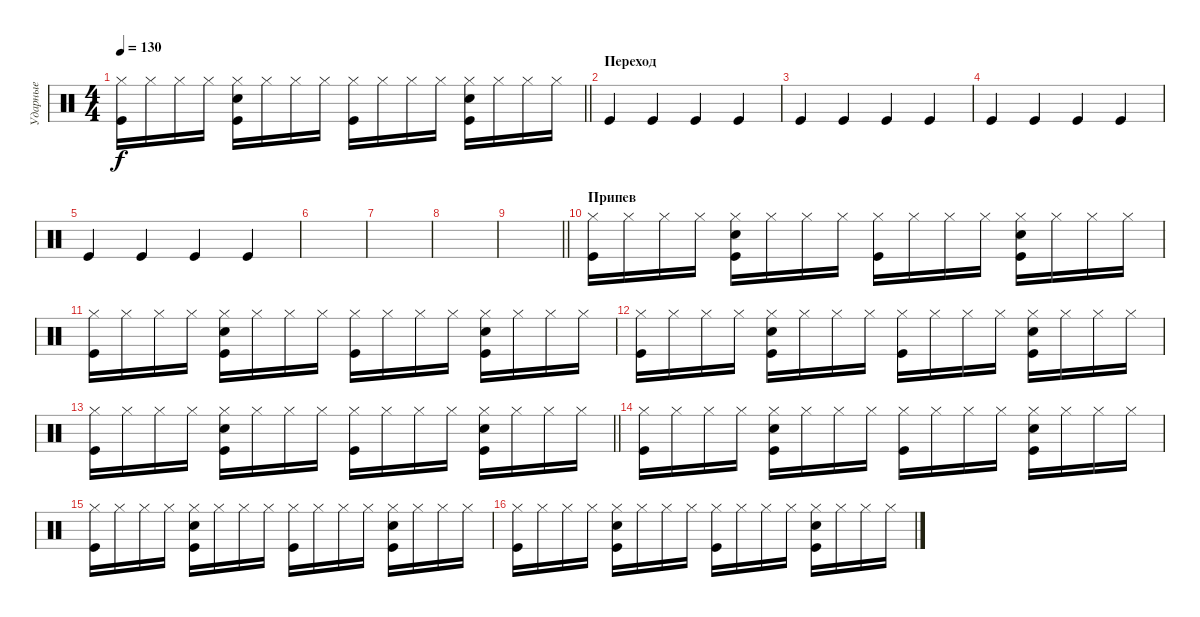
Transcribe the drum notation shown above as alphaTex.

\track ("Ударные" "Ударные") {instrument percussion}
\staff {score}
\articulation defaults
\ts (4 4)
\tempo 130
\clef neutral
\barLineRight lightlight
\ks c
("Hi-Hat (closed)" "Kick (hit)").16{dy f} "Hi-Hat (closed)".16 "Hi-Hat (closed)".16 "Hi-Hat (closed)".16 ("Hi-Hat (closed)" "Kick (hit)" "Snare (hit) 2").16 "Hi-Hat (closed)".16 "Hi-Hat (closed)".16 "Hi-Hat (closed)".16 ("Hi-Hat (closed)" "Kick (hit)").16 "Hi-Hat (closed)".16 "Hi-Hat (closed)".16 "Hi-Hat (closed)".16 ("Hi-Hat (closed)" "Kick (hit)" "Snare (hit) 2").16 "Hi-Hat (closed)".16 "Hi-Hat (closed)".16 "Hi-Hat (closed)".16 |
\section ("" "Переход")
"Kick (hit)".4 "Kick (hit)".4 "Kick (hit)".4 "Kick (hit)".4 |
"Kick (hit)".4 "Kick (hit)".4 "Kick (hit)".4 "Kick (hit)".4 |
"Kick (hit)".4 "Kick (hit)".4 "Kick (hit)".4 "Kick (hit)".4 |
"Kick (hit)".4 "Kick (hit)".4 "Kick (hit)".4 "Kick (hit)".4 |
|
|
|
\barLineRight lightlight
|
\section ("" "Припев")
("Hi-Hat (closed)" "Kick (hit)").16 "Hi-Hat (closed)".16 "Hi-Hat (closed)".16 "Hi-Hat (closed)".16 ("Hi-Hat (closed)" "Kick (hit)" "Snare (hit) 2").16 "Hi-Hat (closed)".16 "Hi-Hat (closed)".16 "Hi-Hat (closed)".16 ("Hi-Hat (closed)" "Kick (hit)").16 "Hi-Hat (closed)".16 "Hi-Hat (closed)".16 "Hi-Hat (closed)".16 ("Hi-Hat (closed)" "Kick (hit)" "Snare (hit) 2").16 "Hi-Hat (closed)".16 "Hi-Hat (closed)".16 "Hi-Hat (closed)".16 |
("Hi-Hat (closed)" "Kick (hit)").16 "Hi-Hat (closed)".16 "Hi-Hat (closed)".16 "Hi-Hat (closed)".16 ("Hi-Hat (closed)" "Kick (hit)" "Snare (hit) 2").16 "Hi-Hat (closed)".16 "Hi-Hat (closed)".16 "Hi-Hat (closed)".16 ("Hi-Hat (closed)" "Kick (hit)").16 "Hi-Hat (closed)".16 "Hi-Hat (closed)".16 "Hi-Hat (closed)".16 ("Hi-Hat (closed)" "Kick (hit)" "Snare (hit) 2").16 "Hi-Hat (closed)".16 "Hi-Hat (closed)".16 "Hi-Hat (closed)".16 |
("Hi-Hat (closed)" "Kick (hit)").16 "Hi-Hat (closed)".16 "Hi-Hat (closed)".16 "Hi-Hat (closed)".16 ("Hi-Hat (closed)" "Kick (hit)" "Snare (hit) 2").16 "Hi-Hat (closed)".16 "Hi-Hat (closed)".16 "Hi-Hat (closed)".16 ("Hi-Hat (closed)" "Kick (hit)").16 "Hi-Hat (closed)".16 "Hi-Hat (closed)".16 "Hi-Hat (closed)".16 ("Hi-Hat (closed)" "Kick (hit)" "Snare (hit) 2").16 "Hi-Hat (closed)".16 "Hi-Hat (closed)".16 "Hi-Hat (closed)".16 |
\barLineRight lightlight
("Hi-Hat (closed)" "Kick (hit)").16 "Hi-Hat (closed)".16 "Hi-Hat (closed)".16 "Hi-Hat (closed)".16 ("Hi-Hat (closed)" "Kick (hit)" "Snare (hit) 2").16 "Hi-Hat (closed)".16 "Hi-Hat (closed)".16 "Hi-Hat (closed)".16 ("Hi-Hat (closed)" "Kick (hit)").16 "Hi-Hat (closed)".16 "Hi-Hat (closed)".16 "Hi-Hat (closed)".16 ("Hi-Hat (closed)" "Kick (hit)" "Snare (hit) 2").16 "Hi-Hat (closed)".16 "Hi-Hat (closed)".16 "Hi-Hat (closed)".16 |
("Hi-Hat (closed)" "Kick (hit)").16 "Hi-Hat (closed)".16 "Hi-Hat (closed)".16 "Hi-Hat (closed)".16 ("Hi-Hat (closed)" "Kick (hit)" "Snare (hit) 2").16 "Hi-Hat (closed)".16 "Hi-Hat (closed)".16 "Hi-Hat (closed)".16 ("Hi-Hat (closed)" "Kick (hit)").16 "Hi-Hat (closed)".16 "Hi-Hat (closed)".16 "Hi-Hat (closed)".16 ("Hi-Hat (closed)" "Kick (hit)" "Snare (hit) 2").16 "Hi-Hat (closed)".16 "Hi-Hat (closed)".16 "Hi-Hat (closed)".16 |
("Hi-Hat (closed)" "Kick (hit)").16 "Hi-Hat (closed)".16 "Hi-Hat (closed)".16 "Hi-Hat (closed)".16 ("Hi-Hat (closed)" "Kick (hit)" "Snare (hit) 2").16 "Hi-Hat (closed)".16 "Hi-Hat (closed)".16 "Hi-Hat (closed)".16 ("Hi-Hat (closed)" "Kick (hit)").16 "Hi-Hat (closed)".16 "Hi-Hat (closed)".16 "Hi-Hat (closed)".16 ("Hi-Hat (closed)" "Kick (hit)" "Snare (hit) 2").16 "Hi-Hat (closed)".16 "Hi-Hat (closed)".16 "Hi-Hat (closed)".16 |
("Hi-Hat (closed)" "Kick (hit)").16 "Hi-Hat (closed)".16 "Hi-Hat (closed)".16 "Hi-Hat (closed)".16 ("Hi-Hat (closed)" "Kick (hit)" "Snare (hit) 2").16 "Hi-Hat (closed)".16 "Hi-Hat (closed)".16 "Hi-Hat (closed)".16 ("Hi-Hat (closed)" "Kick (hit)").16 "Hi-Hat (closed)".16 "Hi-Hat (closed)".16 "Hi-Hat (closed)".16 ("Hi-Hat (closed)" "Kick (hit)" "Snare (hit) 2").16 "Hi-Hat (closed)".16 "Hi-Hat (closed)".16 "Hi-Hat (closed)".16
